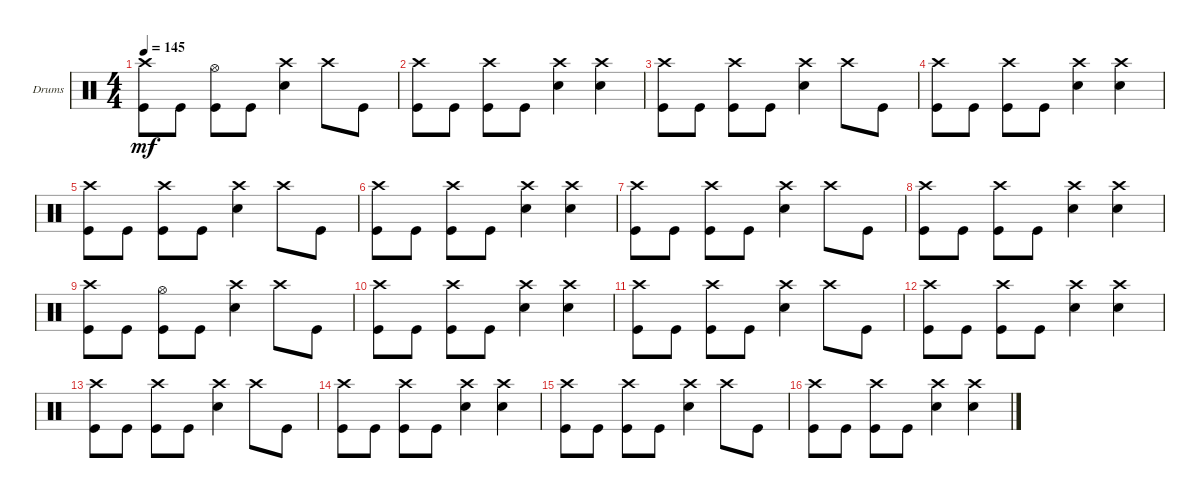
\defaultSystemsLayout 4
\bracketExtendMode groupsimilarinstruments
\firstSystemTrackNameOrientation horizontal
\otherSystemsTrackNameOrientation horizontal
\track ("Matt Uychich" "Drums") {instrument percussion}
\staff {score}
\articulation defaults
\ts (4 4)
\tempo 145
\clef neutral
\scale
0.333333
\ks c
("Crash high (hit)" "Kick (hit)").8{dy mf} "Kick (hit)".8 ("Kick (hit)" "Hi-Hat (open)").8 "Kick (hit)".8 ("Snare (hit) 2" "Crash high (hit)").4 "Crash high (hit)".8 "Kick (hit)".8 |
\scale
0.333333 ("Kick (hit)" "Crash high (hit)").8 "Kick (hit)".8 ("Kick (hit)" "Crash high (hit)").8 "Kick (hit)".8 ("Crash high (hit)" "Snare (hit) 2").4 ("Crash high (hit)" "Snare (hit) 2").4 |
\scale
0.333333 ("Crash high (hit)" "Kick (hit)").8 "Kick (hit)".8 ("Kick (hit)" "Crash high (hit)").8 "Kick (hit)".8 ("Snare (hit) 2" "Crash high (hit)").4 "Crash high (hit)".8 "Kick (hit)".8 |
\scale
0.333333 ("Kick (hit)" "Crash high (hit)").8 "Kick (hit)".8 ("Kick (hit)" "Crash high (hit)").8 "Kick (hit)".8 ("Crash high (hit)" "Snare (hit) 2").4 ("Crash high (hit)" "Snare (hit) 2").4 |
\scale
0.333333 ("Crash high (hit)" "Kick (hit)").8 "Kick (hit)".8 ("Kick (hit)" "Crash high (hit)").8 "Kick (hit)".8 ("Snare (hit) 2" "Crash high (hit)").4 "Crash high (hit)".8 "Kick (hit)".8 |
\scale
0.333333 ("Kick (hit)" "Crash high (hit)").8 "Kick (hit)".8 ("Kick (hit)" "Crash high (hit)").8 "Kick (hit)".8 ("Crash high (hit)" "Snare (hit) 2").4 ("Crash high (hit)" "Snare (hit) 2").4 |
\scale
0.333333 ("Crash high (hit)" "Kick (hit)").8 "Kick (hit)".8 ("Kick (hit)" "Crash high (hit)").8 "Kick (hit)".8 ("Snare (hit) 2" "Crash high (hit)").4 "Crash high (hit)".8 "Kick (hit)".8 |
\scale
0.333333 ("Kick (hit)" "Crash high (hit)").8 "Kick (hit)".8 ("Kick (hit)" "Crash high (hit)").8 "Kick (hit)".8 ("Crash high (hit)" "Snare (hit) 2").4 ("Crash high (hit)" "Snare (hit) 2").4 |
\scale
0.333333 ("Crash high (hit)" "Kick (hit)").8 "Kick (hit)".8 ("Kick (hit)" "Hi-Hat (open)").8 "Kick (hit)".8 ("Snare (hit) 2" "Crash high (hit)").4 "Crash high (hit)".8 "Kick (hit)".8 |
\scale
0.333333 ("Kick (hit)" "Crash high (hit)").8 "Kick (hit)".8 ("Kick (hit)" "Crash high (hit)").8 "Kick (hit)".8 ("Crash high (hit)" "Snare (hit) 2").4 ("Crash high (hit)" "Snare (hit) 2").4 |
\scale
0.333333 ("Crash high (hit)" "Kick (hit)").8 "Kick (hit)".8 ("Kick (hit)" "Crash high (hit)").8 "Kick (hit)".8 ("Snare (hit) 2" "Crash high (hit)").4 "Crash high (hit)".8 "Kick (hit)".8 |
\scale
0.333333 ("Kick (hit)" "Crash high (hit)").8 "Kick (hit)".8 ("Kick (hit)" "Crash high (hit)").8 "Kick (hit)".8 ("Crash high (hit)" "Snare (hit) 2").4 ("Crash high (hit)" "Snare (hit) 2").4 |
\scale
0.333333 ("Crash high (hit)" "Kick (hit)").8 "Kick (hit)".8 ("Kick (hit)" "Crash high (hit)").8 "Kick (hit)".8 ("Snare (hit) 2" "Crash high (hit)").4 "Crash high (hit)".8 "Kick (hit)".8 |
\scale
0.333333 ("Kick (hit)" "Crash high (hit)").8 "Kick (hit)".8 ("Kick (hit)" "Crash high (hit)").8 "Kick (hit)".8 ("Crash high (hit)" "Snare (hit) 2").4 ("Crash high (hit)" "Snare (hit) 2").4 |
\scale
0.333333 ("Crash high (hit)" "Kick (hit)").8 "Kick (hit)".8 ("Kick (hit)" "Crash high (hit)").8 "Kick (hit)".8 ("Snare (hit) 2" "Crash high (hit)").4 "Crash high (hit)".8 "Kick (hit)".8 |
\scale
0.333333 ("Kick (hit)" "Crash high (hit)").8 "Kick (hit)".8 ("Kick (hit)" "Crash high (hit)").8 "Kick (hit)".8 ("Crash high (hit)" "Snare (hit) 2").4 ("Crash high (hit)" "Snare (hit) 2").4
